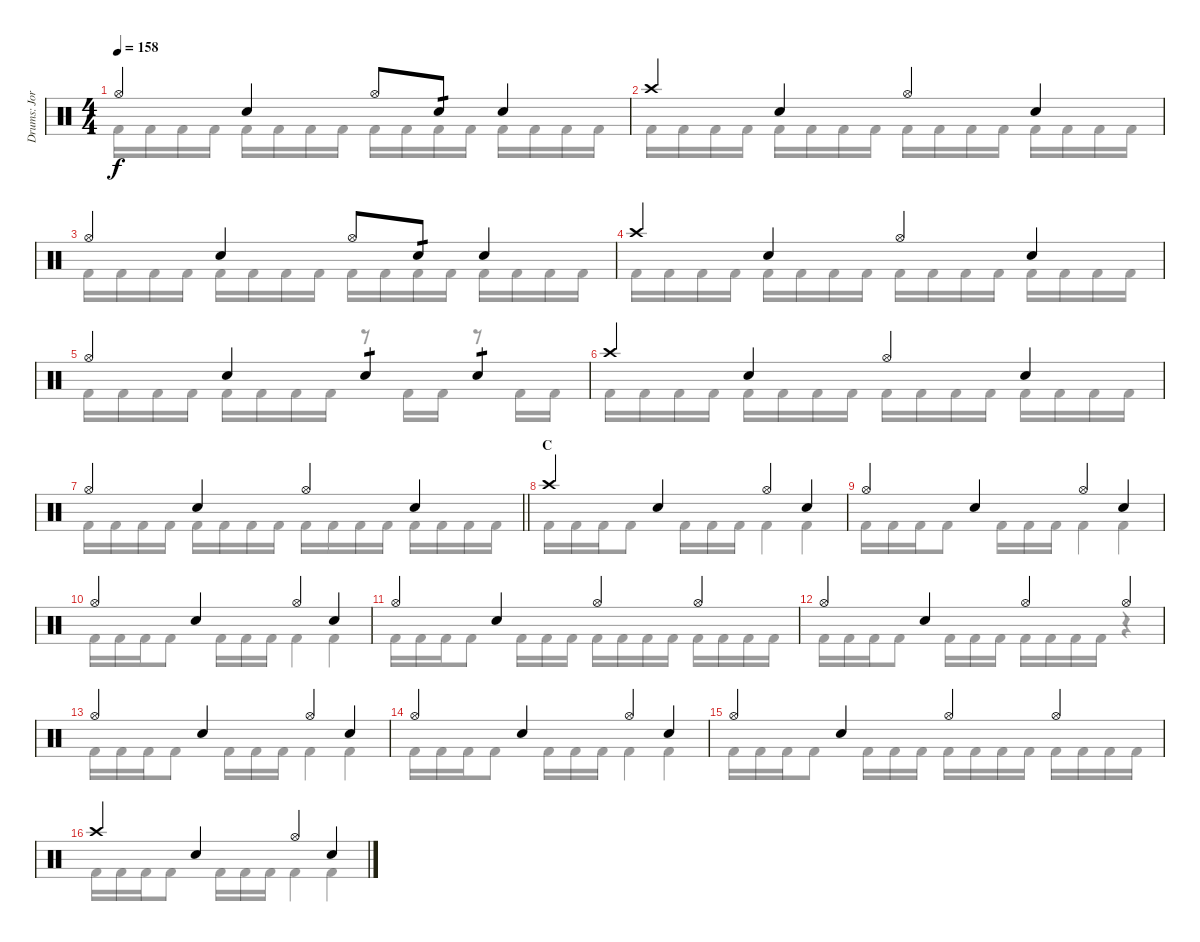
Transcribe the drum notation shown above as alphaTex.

\track ("Drums: Jorg" "Drums: Jor") {instrument percussion}
\staff {score}
\articulation defaults
\voice
\ts (4 4)
\tempo 158
\clef neutral
\ks c "Hi-Hat (open)".4{dy f} "Snare (hit) 2".4 "Hi-Hat (open)".8 "Snare (hit) 2".8{tp 1} "Snare (hit) 2".4
|
"Crash high (hit)".4 "Snare (hit) 2".4 "Hi-Hat (open)".4 "Snare (hit) 2".4 |
"Hi-Hat (open)".4 "Snare (hit) 2".4 "Hi-Hat (open)".8 "Snare (hit) 2".8{tp 1} "Snare (hit) 2".4 |
"Crash high (hit)".4 "Snare (hit) 2".4 "Hi-Hat (open)".4 "Snare (hit) 2".4 |
"Hi-Hat (open)".4 "Snare (hit) 2".4 "Snare (hit) 2".4{tp 1} "Snare (hit) 2".4{tp 1} |
"Crash high (hit)".4 "Snare (hit) 2".4 "Hi-Hat (open)".4 "Snare (hit) 2".4 |
\barLineRight lightlight "Hi-Hat (open)".4 "Snare (hit) 2".4 "Hi-Hat (open)".4 "Snare (hit) 2".4
|
\section ("" "C")
"Crash high (hit)".4 "Snare (hit) 2".4 "Hi-Hat (open)".4 "Snare (hit) 2".4 |
"Hi-Hat (open)".4 "Snare (hit) 2".4 "Hi-Hat (open)".4 "Snare (hit) 2".4 |
"Hi-Hat (open)".4 "Snare (hit) 2".4 "Hi-Hat (open)".4 "Snare (hit) 2".4 |
"Hi-Hat (open)".4 "Snare (hit) 2".4 "Hi-Hat (open)".4 "Hi-Hat (open)".4 |
"Hi-Hat (open)".4 "Snare (hit) 2".4 "Hi-Hat (open)".4 "Hi-Hat (open)".4 |
"Hi-Hat (open)".4 "Snare (hit) 2".4 "Hi-Hat (open)".4 "Snare (hit) 2".4 |
"Hi-Hat (open)".4 "Snare (hit) 2".4 "Hi-Hat (open)".4 "Snare (hit) 2".4 |
"Hi-Hat (open)".4 "Snare (hit) 2".4 "Hi-Hat (open)".4 "Hi-Hat (open)".4 |
"Crash high (hit)".4 "Snare (hit) 2".4 "Hi-Hat (open)".4 "Snare (hit) 2".4
\voice
\clef neutral
\ottava regular
\simile none
\ks c "Kick (hit) 2".16{dy f} "Kick (hit) 2".16 "Kick (hit) 2".16 "Kick (hit) 2".16 "Kick (hit) 2".16 "Kick (hit) 2".16 "Kick (hit) 2".16 "Kick (hit) 2".16 "Kick (hit) 2".16 "Kick (hit) 2".16 "Kick (hit) 2".16 "Kick (hit) 2".16 "Kick (hit) 2".16 "Kick (hit) 2".16 "Kick (hit) 2".16 "Kick (hit) 2".16
|
"Kick (hit) 2".16 "Kick (hit) 2".16 "Kick (hit) 2".16 "Kick (hit) 2".16 "Kick (hit) 2".16 "Kick (hit) 2".16 "Kick (hit) 2".16 "Kick (hit) 2".16 "Kick (hit) 2".16 "Kick (hit) 2".16 "Kick (hit) 2".16 "Kick (hit) 2".16 "Kick (hit) 2".16 "Kick (hit) 2".16 "Kick (hit) 2".16 "Kick (hit) 2".16 |
"Kick (hit) 2".16 "Kick (hit) 2".16 "Kick (hit) 2".16 "Kick (hit) 2".16 "Kick (hit) 2".16 "Kick (hit) 2".16 "Kick (hit) 2".16 "Kick (hit) 2".16 "Kick (hit) 2".16 "Kick (hit) 2".16 "Kick (hit) 2".16 "Kick (hit) 2".16 "Kick (hit) 2".16 "Kick (hit) 2".16 "Kick (hit) 2".16 "Kick (hit) 2".16 |
"Kick (hit) 2".16 "Kick (hit) 2".16 "Kick (hit) 2".16 "Kick (hit) 2".16 "Kick (hit) 2".16 "Kick (hit) 2".16 "Kick (hit) 2".16 "Kick (hit) 2".16 "Kick (hit) 2".16 "Kick (hit) 2".16 "Kick (hit) 2".16 "Kick (hit) 2".16 "Kick (hit) 2".16 "Kick (hit) 2".16 "Kick (hit) 2".16 "Kick (hit) 2".16 |
"Kick (hit) 2".16 "Kick (hit) 2".16 "Kick (hit) 2".16 "Kick (hit) 2".16 "Kick (hit) 2".16 "Kick (hit) 2".16 "Kick (hit) 2".16 "Kick (hit) 2".16 r.8 "Kick (hit) 2".16 "Kick (hit) 2".16 r.8 "Kick (hit) 2".16 "Kick (hit) 2".16 |
"Kick (hit) 2".16 "Kick (hit) 2".16 "Kick (hit) 2".16 "Kick (hit) 2".16 "Kick (hit) 2".16 "Kick (hit) 2".16 "Kick (hit) 2".16 "Kick (hit) 2".16 "Kick (hit) 2".16 "Kick (hit) 2".16 "Kick (hit) 2".16 "Kick (hit) 2".16 "Kick (hit) 2".16 "Kick (hit) 2".16 "Kick (hit) 2".16 "Kick (hit) 2".16 |
\barLineRight lightlight "Kick (hit) 2".16 "Kick (hit) 2".16 "Kick (hit) 2".16 "Kick (hit) 2".16 "Kick (hit) 2".16 "Kick (hit) 2".16 "Kick (hit) 2".16 "Kick (hit) 2".16 "Kick (hit) 2".16 "Kick (hit) 2".16 "Kick (hit) 2".16 "Kick (hit) 2".16 "Kick (hit) 2".16 "Kick (hit) 2".16 "Kick (hit) 2".16 "Kick (hit) 2".16
|
"Kick (hit) 2".16 "Kick (hit) 2".16 "Kick (hit) 2".16 "Kick (hit) 2".8 "Kick (hit) 2".16 "Kick (hit) 2".16 "Kick (hit) 2".16 "Kick (hit) 2".4 "Kick (hit) 2".4 |
"Kick (hit) 2".16 "Kick (hit) 2".16 "Kick (hit) 2".16 "Kick (hit) 2".8 "Kick (hit) 2".16 "Kick (hit) 2".16 "Kick (hit) 2".16 "Kick (hit) 2".4 "Kick (hit) 2".4 |
"Kick (hit) 2".16 "Kick (hit) 2".16 "Kick (hit) 2".16 "Kick (hit) 2".8 "Kick (hit) 2".16 "Kick (hit) 2".16 "Kick (hit) 2".16 "Kick (hit) 2".4 "Kick (hit) 2".4 |
"Kick (hit) 2".16 "Kick (hit) 2".16 "Kick (hit) 2".16 "Kick (hit) 2".8 "Kick (hit) 2".16 "Kick (hit) 2".16 "Kick (hit) 2".16 "Kick (hit) 2".16 "Kick (hit) 2".16 "Kick (hit) 2".16 "Kick (hit) 2".16 "Kick (hit) 2".16 "Kick (hit) 2".16 "Kick (hit) 2".16 "Kick (hit) 2".16 |
"Kick (hit) 2".16 "Kick (hit) 2".16 "Kick (hit) 2".16 "Kick (hit) 2".8 "Kick (hit) 2".16 "Kick (hit) 2".16 "Kick (hit) 2".16 "Kick (hit) 2".16 "Kick (hit) 2".16 "Kick (hit) 2".16 "Kick (hit) 2".16 r.4 |
"Kick (hit) 2".16 "Kick (hit) 2".16 "Kick (hit) 2".16 "Kick (hit) 2".8 "Kick (hit) 2".16 "Kick (hit) 2".16 "Kick (hit) 2".16 "Kick (hit) 2".4 "Kick (hit) 2".4 |
"Kick (hit) 2".16 "Kick (hit) 2".16 "Kick (hit) 2".16 "Kick (hit) 2".8 "Kick (hit) 2".16 "Kick (hit) 2".16 "Kick (hit) 2".16 "Kick (hit) 2".4 "Kick (hit) 2".4 |
"Kick (hit) 2".16 "Kick (hit) 2".16 "Kick (hit) 2".16 "Kick (hit) 2".8 "Kick (hit) 2".16 "Kick (hit) 2".16 "Kick (hit) 2".16 "Kick (hit) 2".16 "Kick (hit) 2".16 "Kick (hit) 2".16 "Kick (hit) 2".16 "Kick (hit) 2".16 "Kick (hit) 2".16 "Kick (hit) 2".16 "Kick (hit) 2".16 |
"Kick (hit) 2".16 "Kick (hit) 2".16 "Kick (hit) 2".16 "Kick (hit) 2".8 "Kick (hit) 2".16 "Kick (hit) 2".16 "Kick (hit) 2".16 "Kick (hit) 2".4 "Kick (hit) 2".4
